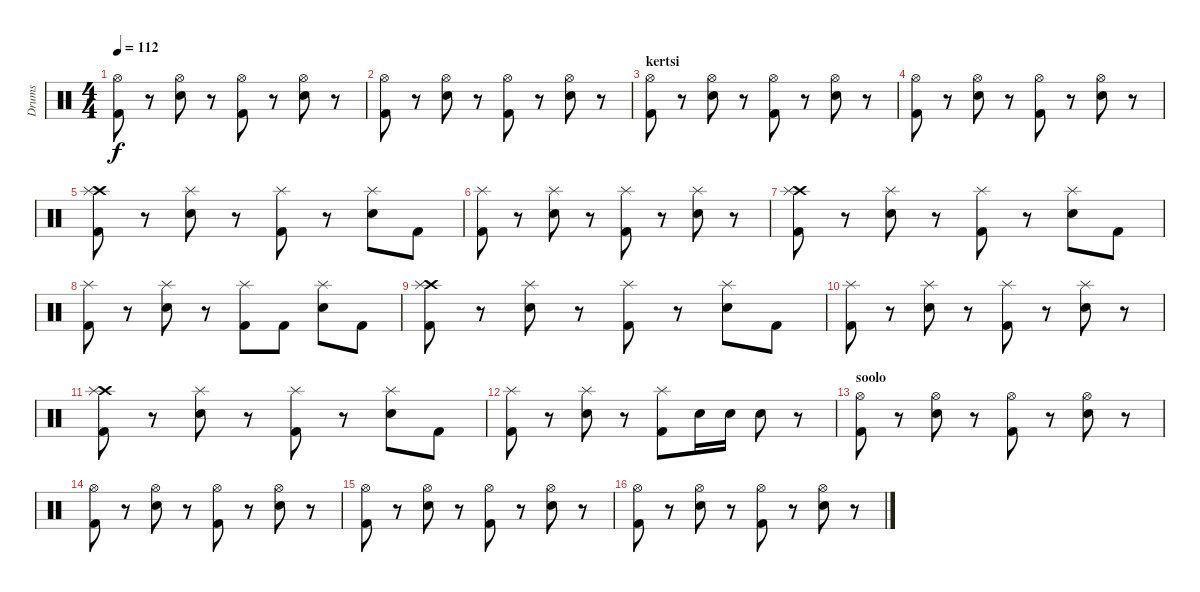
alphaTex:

\track ("Drums" "Drums") {instrument percussion}
\staff {score}
\articulation defaults
\ts (4 4)
\tempo 112
\clef neutral
\ks c
("Hi-Hat (open)" "Kick (hit) 2").8{dy f} r.8 ("Hi-Hat (open)" "Snare (hit) 2").8 r.8 ("Hi-Hat (open)" "Kick (hit) 2").8 r.8 ("Hi-Hat (open)" "Snare (hit) 2").8 r.8 |
("Hi-Hat (open)" "Kick (hit) 2").8 r.8 ("Hi-Hat (open)" "Snare (hit) 2").8 r.8 ("Hi-Hat (open)" "Kick (hit) 2").8 r.8 ("Hi-Hat (open)" "Snare (hit) 2").8 r.8 |
\section ("" "kertsi")
("Hi-Hat (open)" "Kick (hit) 2").8 r.8 ("Hi-Hat (open)" "Snare (hit) 2").8 r.8 ("Hi-Hat (open)" "Kick (hit) 2").8 r.8 ("Hi-Hat (open)" "Snare (hit) 2").8 r.8 |
("Hi-Hat (open)" "Kick (hit) 2").8 r.8 ("Hi-Hat (open)" "Snare (hit) 2").8 r.8 ("Hi-Hat (open)" "Kick (hit) 2").8 r.8 ("Hi-Hat (open)" "Snare (hit) 2").8 r.8 |
("Crash high (hit)" "Splash (hit)" "Kick (hit) 2").8 r.8 ("Splash (hit)" "Snare (hit) 2").8 r.8 ("Splash (hit)" "Kick (hit) 2").8 r.8 ("Splash (hit)" "Snare (hit) 2").8 "Kick (hit) 2".8 |
("Splash (hit)" "Kick (hit) 2").8 r.8 ("Splash (hit)" "Snare (hit) 2").8 r.8 ("Splash (hit)" "Kick (hit) 2").8 r.8 ("Splash (hit)" "Snare (hit) 2").8 r.8 |
("Crash high (hit)" "Splash (hit)" "Kick (hit) 2").8 r.8 ("Splash (hit)" "Snare (hit) 2").8 r.8 ("Splash (hit)" "Kick (hit) 2").8 r.8 ("Splash (hit)" "Snare (hit) 2").8 "Kick (hit) 2".8 |
("Splash (hit)" "Kick (hit) 2").8 r.8 ("Splash (hit)" "Snare (hit) 2").8 r.8 ("Splash (hit)" "Kick (hit) 2").8 "Kick (hit) 2".8 ("Splash (hit)" "Snare (hit) 2").8 "Kick (hit) 2".8 |
("Crash high (hit)" "Splash (hit)" "Kick (hit) 2").8 r.8 ("Splash (hit)" "Snare (hit) 2").8 r.8 ("Splash (hit)" "Kick (hit) 2").8 r.8 ("Splash (hit)" "Snare (hit) 2").8 "Kick (hit) 2".8 |
("Splash (hit)" "Kick (hit) 2").8 r.8 ("Splash (hit)" "Snare (hit) 2").8 r.8 ("Splash (hit)" "Kick (hit) 2").8 r.8 ("Splash (hit)" "Snare (hit) 2").8 r.8 |
("Crash high (hit)" "Splash (hit)" "Kick (hit) 2").8 r.8 ("Splash (hit)" "Snare (hit) 2").8 r.8 ("Splash (hit)" "Kick (hit) 2").8 r.8 ("Splash (hit)" "Snare (hit) 2").8 "Kick (hit) 2".8 |
("Splash (hit)" "Kick (hit) 2").8 r.8 ("Splash (hit)" "Snare (hit) 2").8 r.8 ("Splash (hit)" "Kick (hit) 2").8 "Snare (hit) 2".16 "Snare (hit) 2".16 "Snare (hit) 2".8 r.8 |
\section ("" "soolo")
("Hi-Hat (open)" "Kick (hit) 2").8 r.8 ("Hi-Hat (open)" "Snare (hit) 2").8 r.8 ("Hi-Hat (open)" "Kick (hit) 2").8 r.8 ("Hi-Hat (open)" "Snare (hit) 2").8 r.8 |
("Hi-Hat (open)" "Kick (hit) 2").8 r.8 ("Hi-Hat (open)" "Snare (hit) 2").8 r.8 ("Hi-Hat (open)" "Kick (hit) 2").8 r.8 ("Hi-Hat (open)" "Snare (hit) 2").8 r.8 |
("Hi-Hat (open)" "Kick (hit) 2").8 r.8 ("Hi-Hat (open)" "Snare (hit) 2").8 r.8 ("Hi-Hat (open)" "Kick (hit) 2").8 r.8 ("Hi-Hat (open)" "Snare (hit) 2").8 r.8 |
("Hi-Hat (open)" "Kick (hit) 2").8 r.8 ("Hi-Hat (open)" "Snare (hit) 2").8 r.8 ("Hi-Hat (open)" "Kick (hit) 2").8 r.8 ("Hi-Hat (open)" "Snare (hit) 2").8 r.8
